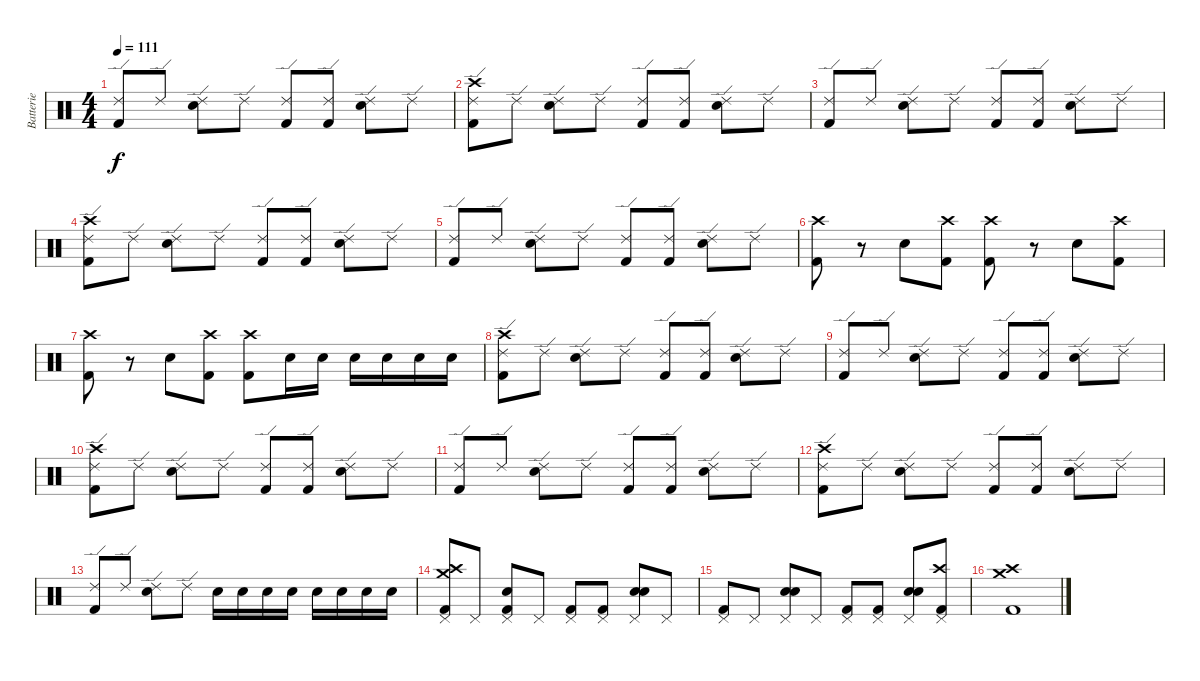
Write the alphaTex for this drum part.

\track ("Batterie" "Batterie") {instrument percussion}
\staff {score}
\articulation defaults
\ts (4 4)
\tempo 111
\clef neutral
\ks c
("Kick (hit) 2" "Ride (edge) 2").8{dy f} "Ride (edge) 2".8 ("Snare (hit) 2" "Ride (edge) 2").8 "Ride (edge) 2".8 ("Kick (hit) 2" "Ride (edge) 2").8 ("Kick (hit) 2" "Ride (edge) 2").8 ("Snare (hit) 2" "Ride (edge) 2").8 "Ride (edge) 2".8 |
("Kick (hit) 2" "Ride (edge) 2" "Crash high (hit)").8 "Ride (edge) 2".8 ("Snare (hit) 2" "Ride (edge) 2").8 "Ride (edge) 2".8 ("Kick (hit) 2" "Ride (edge) 2").8 ("Kick (hit) 2" "Ride (edge) 2").8 ("Snare (hit) 2" "Ride (edge) 2").8 "Ride (edge) 2".8 |
("Kick (hit) 2" "Ride (edge) 2").8 "Ride (edge) 2".8 ("Snare (hit) 2" "Ride (edge) 2").8 "Ride (edge) 2".8 ("Kick (hit) 2" "Ride (edge) 2").8 ("Kick (hit) 2" "Ride (edge) 2").8 ("Snare (hit) 2" "Ride (edge) 2").8 "Ride (edge) 2".8 |
("Kick (hit) 2" "Ride (edge) 2" "Crash high (hit)").8 "Ride (edge) 2".8 ("Snare (hit) 2" "Ride (edge) 2").8 "Ride (edge) 2".8 ("Kick (hit) 2" "Ride (edge) 2").8 ("Kick (hit) 2" "Ride (edge) 2").8 ("Snare (hit) 2" "Ride (edge) 2").8 "Ride (edge) 2".8 |
("Kick (hit) 2" "Ride (edge) 2").8 "Ride (edge) 2".8 ("Snare (hit) 2" "Ride (edge) 2").8 "Ride (edge) 2".8 ("Kick (hit) 2" "Ride (edge) 2").8 ("Kick (hit) 2" "Ride (edge) 2").8 ("Snare (hit) 2" "Ride (edge) 2").8 "Ride (edge) 2".8 |
("Kick (hit) 2" "Crash high (hit)").8 r.8 "Snare (hit) 2".8 ("Kick (hit) 2" "Crash high (hit)").8 ("Kick (hit) 2" "Crash high (hit)").8 r.8 "Snare (hit) 2".8 ("Kick (hit) 2" "Crash high (hit)").8 |
("Kick (hit) 2" "Crash high (hit)").8 r.8 "Snare (hit) 2".8 ("Kick (hit) 2" "Crash high (hit)").8 ("Kick (hit) 2" "Crash high (hit)").8 "Snare (hit) 2".16 "Snare (hit) 2".16 "Snare (hit) 2".16 "Snare (hit) 2".16 "Snare (hit) 2".16 "Snare (hit) 2".16 |
("Kick (hit) 2" "Ride (edge) 2" "Crash high (hit)").8 "Ride (edge) 2".8 ("Snare (hit) 2" "Ride (edge) 2").8 "Ride (edge) 2".8 ("Kick (hit) 2" "Ride (edge) 2").8 ("Kick (hit) 2" "Ride (edge) 2").8 ("Snare (hit) 2" "Ride (edge) 2").8 "Ride (edge) 2".8 |
("Kick (hit) 2" "Ride (edge) 2").8 "Ride (edge) 2".8 ("Snare (hit) 2" "Ride (edge) 2").8 "Ride (edge) 2".8 ("Kick (hit) 2" "Ride (edge) 2").8 ("Kick (hit) 2" "Ride (edge) 2").8 ("Snare (hit) 2" "Ride (edge) 2").8 "Ride (edge) 2".8 |
("Kick (hit) 2" "Ride (edge) 2" "Crash high (hit)").8 "Ride (edge) 2".8 ("Snare (hit) 2" "Ride (edge) 2").8 "Ride (edge) 2".8 ("Kick (hit) 2" "Ride (edge) 2").8 ("Kick (hit) 2" "Ride (edge) 2").8 ("Snare (hit) 2" "Ride (edge) 2").8 "Ride (edge) 2".8 |
("Kick (hit) 2" "Ride (edge) 2").8 "Ride (edge) 2".8 ("Snare (hit) 2" "Ride (edge) 2").8 "Ride (edge) 2".8 ("Kick (hit) 2" "Ride (edge) 2").8 ("Kick (hit) 2" "Ride (edge) 2").8 ("Snare (hit) 2" "Ride (edge) 2").8 "Ride (edge) 2".8 |
("Kick (hit) 2" "Ride (edge) 2" "Crash high (hit)").8 "Ride (edge) 2".8 ("Snare (hit) 2" "Ride (edge) 2").8 "Ride (edge) 2".8 ("Kick (hit) 2" "Ride (edge) 2").8 ("Kick (hit) 2" "Ride (edge) 2").8 ("Snare (hit) 2" "Ride (edge) 2").8 "Ride (edge) 2".8 |
("Kick (hit) 2" "Ride (edge) 2").8 "Ride (edge) 2".8 ("Snare (hit) 2" "Ride (edge) 2").8 "Ride (edge) 2".8 "Snare (hit) 2".16 "Snare (hit) 2".16 "Snare (hit) 2".16 "Snare (hit) 2".16 "Snare (hit) 2".16 "Snare (hit) 2".16 "Snare (hit) 2".16 "Snare (hit) 2".16 |
("Kick (hit) 2" "Crash medium (hit)" "Crash high (hit)" "Pedal Hi-Hat (hit)").8 "Pedal Hi-Hat (hit)".8 ("Kick (hit) 2" "Pedal Hi-Hat (hit)" "Electric Snare (hit)").8 "Pedal Hi-Hat (hit)".8 ("Kick (hit) 2" "Pedal Hi-Hat (hit)").8 ("Kick (hit) 2" "Pedal Hi-Hat (hit)").8 ("Snare (hit) 2" "Pedal Hi-Hat (hit)" "Hand Clap (hit)").8 "Pedal Hi-Hat (hit)".8 |
("Kick (hit) 2" "Pedal Hi-Hat (hit)").8 "Pedal Hi-Hat (hit)".8 ("Snare (hit) 2" "Pedal Hi-Hat (hit)" "Hand Clap (hit)").8 "Pedal Hi-Hat (hit)".8 ("Kick (hit) 2" "Pedal Hi-Hat (hit)").8 ("Kick (hit) 2" "Pedal Hi-Hat (hit)").8 ("Snare (hit) 2" "Pedal Hi-Hat (hit)" "Hand Clap (hit)").8 ("Kick (hit) 2" "Pedal Hi-Hat (hit)" "Crash high (hit)").8 |
("Kick (hit) 2" "Crash medium (hit)" "Crash high (hit)").1
